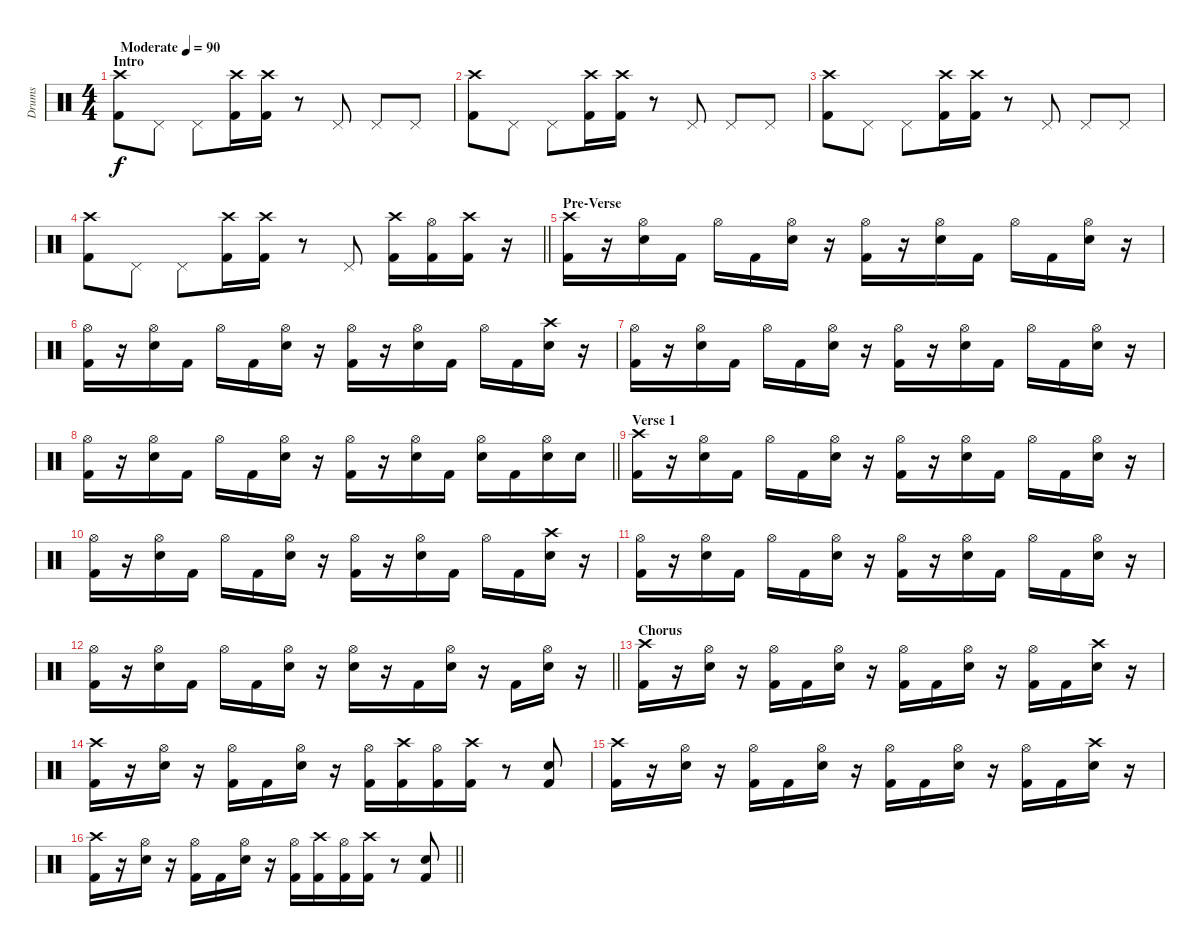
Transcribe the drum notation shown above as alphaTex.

\track ("Drums" "Drums") {instrument percussion}
\staff {score}
\articulation defaults
\ts (4 4)
\section ("" "Intro")
\tempo (90 "Moderate")
\clef neutral
\ks c
("Crash high (hit)" "Kick (hit) 2").8{dy f} "Pedal Hi-Hat (hit)".8 "Pedal Hi-Hat (hit)".8 ("Crash high (hit)" "Kick (hit) 2").16 ("Crash high (hit)" "Kick (hit) 2").16 r.8 "Pedal Hi-Hat (hit)".8 "Pedal Hi-Hat (hit)".8 "Pedal Hi-Hat (hit)".8 |
("Crash high (hit)" "Kick (hit) 2").8 "Pedal Hi-Hat (hit)".8 "Pedal Hi-Hat (hit)".8 ("Crash high (hit)" "Kick (hit) 2").16 ("Crash high (hit)" "Kick (hit) 2").16 r.8 "Pedal Hi-Hat (hit)".8 "Pedal Hi-Hat (hit)".8 "Pedal Hi-Hat (hit)".8 |
("Crash high (hit)" "Kick (hit) 2").8 "Pedal Hi-Hat (hit)".8 "Pedal Hi-Hat (hit)".8 ("Crash high (hit)" "Kick (hit) 2").16 ("Crash high (hit)" "Kick (hit) 2").16 r.8 "Pedal Hi-Hat (hit)".8 "Pedal Hi-Hat (hit)".8 "Pedal Hi-Hat (hit)".8 |
\barLineRight lightlight
("Crash high (hit)" "Kick (hit) 2").8 "Pedal Hi-Hat (hit)".8 "Pedal Hi-Hat (hit)".8 ("Crash high (hit)" "Kick (hit) 2").16 ("Crash high (hit)" "Kick (hit) 2").16 r.8 "Pedal Hi-Hat (hit)".8 ("Crash high (hit)" "Kick (hit) 2").16 ("Hi-Hat (open)" "Kick (hit) 2").16 ("Crash high (hit)" "Kick (hit) 2").16 r.16 |
\section ("" "Pre-Verse")
("Crash high (hit)" "Kick (hit) 2").16 r.16 ("Hi-Hat (open)" "Snare (hit) 2").16 "Kick (hit) 2".16 "Hi-Hat (open)".16 "Kick (hit) 2".16 ("Hi-Hat (open)" "Snare (hit) 2").16 r.16 ("Hi-Hat (open)" "Kick (hit) 2").16 r.16 ("Hi-Hat (open)" "Snare (hit) 2").16 "Kick (hit) 2".16 "Hi-Hat (open)".16 "Kick (hit) 2".16 ("Hi-Hat (open)" "Snare (hit) 2").16 r.16 |
("Hi-Hat (open)" "Kick (hit) 2").16 r.16 ("Hi-Hat (open)" "Snare (hit) 2").16 "Kick (hit) 2".16 "Hi-Hat (open)".16 "Kick (hit) 2".16 ("Hi-Hat (open)" "Snare (hit) 2").16 r.16 ("Hi-Hat (open)" "Kick (hit) 2").16 r.16 ("Hi-Hat (open)" "Snare (hit) 2").16 "Kick (hit) 2".16 "Hi-Hat (open)".16 "Kick (hit) 2".16 ("Crash high (hit)" "Snare (hit) 2").16 r.16 |
("Hi-Hat (open)" "Kick (hit) 2").16 r.16 ("Hi-Hat (open)" "Snare (hit) 2").16 "Kick (hit) 2".16 "Hi-Hat (open)".16 "Kick (hit) 2".16 ("Hi-Hat (open)" "Snare (hit) 2").16 r.16 ("Hi-Hat (open)" "Kick (hit) 2").16 r.16 ("Hi-Hat (open)" "Snare (hit) 2").16 "Kick (hit) 2".16 "Hi-Hat (open)".16 "Kick (hit) 2".16 ("Hi-Hat (open)" "Snare (hit) 2").16 r.16 |
\barLineRight lightlight
("Hi-Hat (open)" "Kick (hit) 2").16 r.16 ("Hi-Hat (open)" "Snare (hit) 2").16 "Kick (hit) 2".16 "Hi-Hat (open)".16 "Kick (hit) 2".16 ("Hi-Hat (open)" "Snare (hit) 2").16 r.16 ("Hi-Hat (open)" "Kick (hit) 2").16 r.16 ("Hi-Hat (open)" "Snare (hit) 2").16 "Kick (hit) 2".16 ("Hi-Hat (open)" "Snare (hit) 2").16 "Kick (hit) 2".16 ("Hi-Hat (open)" "Snare (hit) 2").16 "Snare (hit) 2".16 |
\section ("" "Verse 1")
("Crash high (hit)" "Kick (hit) 2").16 r.16 ("Hi-Hat (open)" "Snare (hit) 2").16 "Kick (hit) 2".16 "Hi-Hat (open)".16 "Kick (hit) 2".16 ("Hi-Hat (open)" "Snare (hit) 2").16 r.16 ("Hi-Hat (open)" "Kick (hit) 2").16 r.16 ("Hi-Hat (open)" "Snare (hit) 2").16 "Kick (hit) 2".16 "Hi-Hat (open)".16 "Kick (hit) 2".16 ("Hi-Hat (open)" "Snare (hit) 2").16 r.16 |
("Hi-Hat (open)" "Kick (hit) 2").16 r.16 ("Hi-Hat (open)" "Snare (hit) 2").16 "Kick (hit) 2".16 "Hi-Hat (open)".16 "Kick (hit) 2".16 ("Hi-Hat (open)" "Snare (hit) 2").16 r.16 ("Hi-Hat (open)" "Kick (hit) 2").16 r.16 ("Hi-Hat (open)" "Snare (hit) 2").16 "Kick (hit) 2".16 "Hi-Hat (open)".16 "Kick (hit) 2".16 ("Crash high (hit)" "Snare (hit) 2").16 r.16 |
("Hi-Hat (open)" "Kick (hit) 2").16 r.16 ("Hi-Hat (open)" "Snare (hit) 2").16 "Kick (hit) 2".16 "Hi-Hat (open)".16 "Kick (hit) 2".16 ("Hi-Hat (open)" "Snare (hit) 2").16 r.16 ("Hi-Hat (open)" "Kick (hit) 2").16 r.16 ("Hi-Hat (open)" "Snare (hit) 2").16 "Kick (hit) 2".16 "Hi-Hat (open)".16 "Kick (hit) 2".16 ("Hi-Hat (open)" "Snare (hit) 2").16 r.16 |
\barLineRight lightlight
("Hi-Hat (open)" "Kick (hit) 2").16 r.16 ("Hi-Hat (open)" "Snare (hit) 2").16 "Kick (hit) 2".16 "Hi-Hat (open)".16 "Kick (hit) 2".16 ("Hi-Hat (open)" "Snare (hit) 2").16 r.16 ("Hi-Hat (open)" "Snare (hit) 2").16 r.16 "Kick (hit) 2".16 ("Hi-Hat (open)" "Snare (hit) 2").16 r.16 "Kick (hit) 2".16 ("Hi-Hat (open)" "Snare (hit) 2").16 r.16 |
\section ("" "Chorus")
("Crash high (hit)" "Kick (hit) 2").16 r.16 ("Hi-Hat (open)" "Snare (hit) 2").16 r.16 ("Hi-Hat (open)" "Kick (hit) 2").16 "Kick (hit) 2".16 ("Hi-Hat (open)" "Snare (hit) 2").16 r.16 ("Hi-Hat (open)" "Kick (hit) 2").16 "Kick (hit) 2".16 ("Hi-Hat (open)" "Snare (hit) 2").16 r.16 ("Hi-Hat (open)" "Kick (hit) 2").16 "Kick (hit) 2".16 ("Crash high (hit)" "Snare (hit) 2").16 r.16 |
("Crash high (hit)" "Kick (hit) 2").16 r.16 ("Hi-Hat (open)" "Snare (hit) 2").16 r.16 ("Hi-Hat (open)" "Kick (hit) 2").16 "Kick (hit) 2".16 ("Hi-Hat (open)" "Snare (hit) 2").16 r.16 ("Hi-Hat (open)" "Kick (hit) 2").16 ("Crash high (hit)" "Kick (hit) 2").16 ("Hi-Hat (open)" "Kick (hit) 2").16 ("Crash high (hit)" "Kick (hit) 2").16 r.8 ("Snare (hit) 2" "Kick (hit) 2").8 |
("Crash high (hit)" "Kick (hit) 2").16 r.16 ("Hi-Hat (open)" "Snare (hit) 2").16 r.16 ("Hi-Hat (open)" "Kick (hit) 2").16 "Kick (hit) 2".16 ("Hi-Hat (open)" "Snare (hit) 2").16 r.16 ("Hi-Hat (open)" "Kick (hit) 2").16 "Kick (hit) 2".16 ("Hi-Hat (open)" "Snare (hit) 2").16 r.16 ("Hi-Hat (open)" "Kick (hit) 2").16 "Kick (hit) 2".16 ("Crash high (hit)" "Snare (hit) 2").16 r.16 |
\barLineRight lightlight
("Crash high (hit)" "Kick (hit) 2").16 r.16 ("Hi-Hat (open)" "Snare (hit) 2").16 r.16 ("Hi-Hat (open)" "Kick (hit) 2").16 "Kick (hit) 2".16 ("Hi-Hat (open)" "Snare (hit) 2").16 r.16 ("Hi-Hat (open)" "Kick (hit) 2").16 ("Crash high (hit)" "Kick (hit) 2").16 ("Hi-Hat (open)" "Kick (hit) 2").16 ("Crash high (hit)" "Kick (hit) 2").16 r.8 ("Snare (hit) 2" "Kick (hit) 2").8
